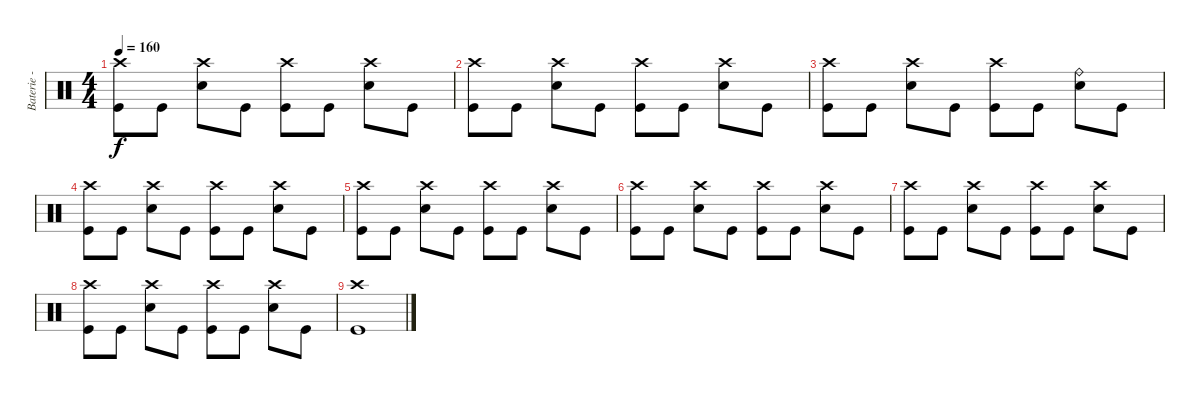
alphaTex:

\track ("Baterie - Alex" "Baterie - ") {instrument percussion}
\staff {score}
\articulation defaults
\ts (4 4)
\tempo 160
\clef neutral
\ks c
("Crash high (hit)" "Kick (hit)").8{dy f} "Kick (hit)".8 ("Crash high (hit)" "Electric Snare (hit)").8 "Kick (hit)".8 ("Crash high (hit)" "Kick (hit)").8 "Kick (hit)".8 ("Crash high (hit)" "Electric Snare (hit)").8 "Kick (hit)".8 |
("Crash high (hit)" "Kick (hit)").8 "Kick (hit)".8 ("Crash high (hit)" "Electric Snare (hit)").8 "Kick (hit)".8 ("Crash high (hit)" "Kick (hit)").8 "Kick (hit)".8 ("Crash high (hit)" "Electric Snare (hit)").8 "Kick (hit)".8 |
("Crash high (hit)" "Kick (hit)").8 "Kick (hit)".8 ("Crash high (hit)" "Electric Snare (hit)").8 "Kick (hit)".8 ("Crash high (hit)" "Kick (hit)").8 "Kick (hit)".8 ("Ride (bell)" "Electric Snare (hit)").8 "Kick (hit)".8 |
("Crash high (hit)" "Kick (hit)").8 "Kick (hit)".8 ("Crash high (hit)" "Electric Snare (hit)").8 "Kick (hit)".8 ("Crash high (hit)" "Kick (hit)").8 "Kick (hit)".8 ("Crash high (hit)" "Electric Snare (hit)").8 "Kick (hit)".8 |
("Crash high (hit)" "Kick (hit)").8 "Kick (hit)".8 ("Crash high (hit)" "Electric Snare (hit)").8 "Kick (hit)".8 ("Crash high (hit)" "Kick (hit)").8 "Kick (hit)".8 ("Crash high (hit)" "Electric Snare (hit)").8 "Kick (hit)".8 |
("Crash high (hit)" "Kick (hit)").8 "Kick (hit)".8 ("Crash high (hit)" "Electric Snare (hit)").8 "Kick (hit)".8 ("Crash high (hit)" "Kick (hit)").8 "Kick (hit)".8 ("Crash high (hit)" "Electric Snare (hit)").8 "Kick (hit)".8 |
("Crash high (hit)" "Kick (hit)").8 "Kick (hit)".8 ("Crash high (hit)" "Electric Snare (hit)").8 "Kick (hit)".8 ("Crash high (hit)" "Kick (hit)").8 "Kick (hit)".8 ("Crash high (hit)" "Electric Snare (hit)").8 "Kick (hit)".8 |
("Crash high (hit)" "Kick (hit)").8 "Kick (hit)".8 ("Crash high (hit)" "Electric Snare (hit)").8 "Kick (hit)".8 ("Crash high (hit)" "Kick (hit)").8 "Kick (hit)".8 ("Crash high (hit)" "Electric Snare (hit)").8 "Kick (hit)".8 |
("Crash high (hit)" "Kick (hit)").1
